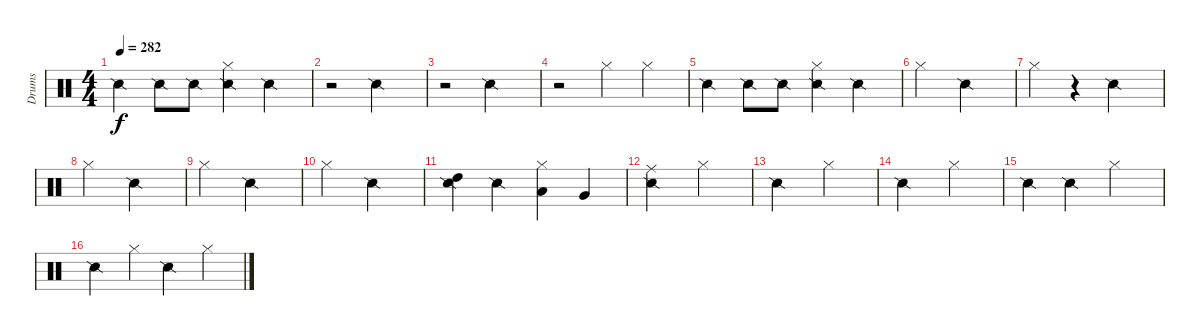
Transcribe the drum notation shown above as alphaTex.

\track ("Drums" "Drums") {instrument percussion}
\staff {score}
\articulation defaults
\ts (4 4)
\tempo 282
\clef neutral
\ks c "Snare (side stick) 2".4{dy f} "Snare (side stick) 2".8 "Snare (side stick) 2".8
("Snare (side stick) 2" "Hi-Hat (closed)").4 "Snare (side stick) 2".4 |
r.2 "Snare (side stick) 2".2 |
r.2 "Snare (side stick) 2".2 |
r.2 "Hi-Hat (closed)".4 "Hi-Hat (closed)".4 |
"Snare (side stick) 2".4 "Snare (side stick) 2".8 "Snare (side stick) 2".8 ("Snare (side stick) 2" "Hi-Hat (closed)").4 "Snare (side stick) 2".4 |
"Hi-Hat (closed)".2 "Snare (side stick) 2".2 |
"Hi-Hat (closed)".4 r.4 "Snare (side stick) 2".2 |
"Hi-Hat (closed)".2 "Snare (side stick) 2".2 |
"Hi-Hat (closed)".2 "Snare (side stick) 2".2 |
"Hi-Hat (closed)".2 "Snare (side stick) 2".2 |
("Snare (side stick) 2" "High Tom (hit)").4 "Snare (side stick) 2".4 ("Hi-Hat (closed)" "Low Tom (hit)").4 "Very Low Tom (hit)".4 |
("Snare (side stick) 2" "Ride (middle)").2 "Hi-Hat (closed)".2 |
"Snare (side stick) 2".2 "Hi-Hat (closed)".2 |
"Snare (side stick) 2".2 "Hi-Hat (closed)".2 |
"Snare (side stick) 2".4 "Snare (side stick) 2".4 "Hi-Hat (closed)".2 |
"Snare (side stick) 2".4 "Hi-Hat (closed)".4 "Snare (side stick) 2".4 "Hi-Hat (closed)".4
